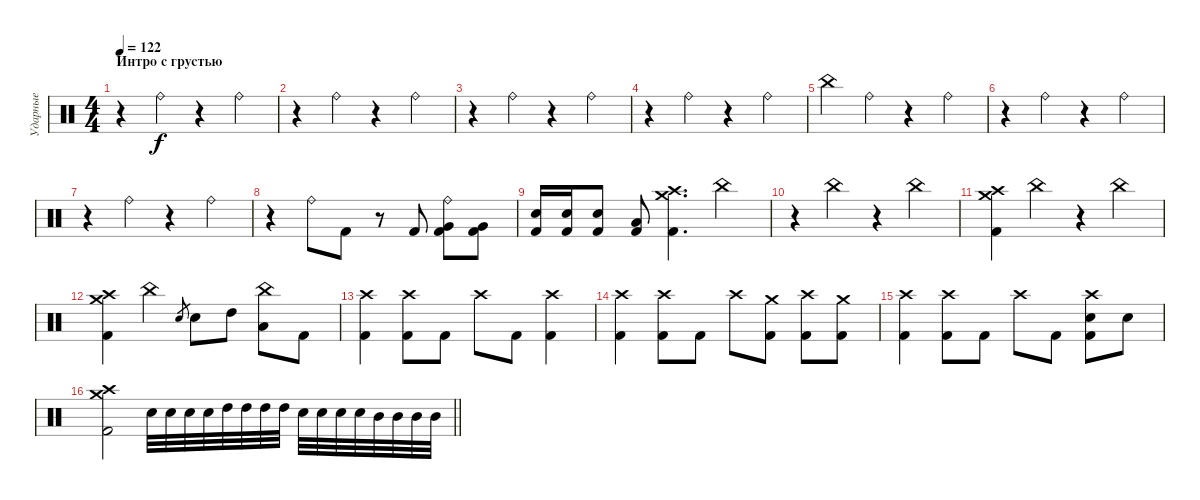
\track ("Ударные" "Ударные") {instrument percussion}
\staff {score}
\articulation defaults
\ts (4 4)
\section ("" "Интро с грустью")
\tempo 122
\clef neutral
\ks c
r.4{dy f} "Ride (bell)".4 r.4 "Ride (bell)".4 |
r.4 "Ride (bell)".4 r.4 "Ride (bell)".4 |
r.4 "Ride (bell)".4 r.4 "Ride (bell)".4 |
r.4 "Ride (bell)".4 r.4 "Ride (bell)".4 |
"China (hit)".4 "Ride (bell)".4 r.4 "Ride (bell)".4 |
r.4 "Ride (bell)".4 r.4 "Ride (bell)".4 |
r.4 "Ride (bell)".4 r.4 "Ride (bell)".4 |
r.4 "Ride (bell)".8 "Kick (hit) 2".8 r.8 "Kick (hit) 2".8 ("Ride (bell)" "Very Low Tom (hit)" "Kick (hit) 2").8 ("Very Low Tom (hit)" "Kick (hit) 2").8 |
("Electric Snare (hit)" "Kick (hit) 2").16 ("Electric Snare (hit)" "Kick (hit) 2").16 ("Electric Snare (hit)" "Kick (hit) 2").8 ("Low Tom (hit)" "Kick (hit) 2").8 ("Crash high (hit)" "Crash medium (hit)" "Kick (hit) 2").4{d} "China (hit)".4 |
r.4 "China (hit)".4 r.4 "China (hit)".4 |
("Crash medium (hit)" "Crash high (hit)" "Kick (hit) 2").4 "China (hit)".4 r.4 "China (hit)".4 |
("Crash medium (hit)" "Crash high (hit)" "Kick (hit) 2").4 "China (hit)".4 "Electric Snare (hit)".8{gr} "Electric Snare (hit)".8 "High Tom (hit)".8 ("China (hit)" "Low Tom (hit)").8 "Kick (hit) 2".8 |
("Crash high (hit)" "Kick (hit) 2").4 ("Crash high (hit)" "Kick (hit) 2").8 "Kick (hit) 2".8 "Crash high (hit)".8 "Kick (hit) 2".8 ("Crash high (hit)" "Kick (hit) 2").4 |
("Crash high (hit)" "Kick (hit) 2").4 ("Crash high (hit)" "Kick (hit) 2").8 "Kick (hit) 2".8 "Crash high (hit)".8 ("Crash medium (hit)" "Kick (hit) 2").8 ("Crash high (hit)" "Kick (hit) 2").8 ("Crash medium (hit)" "Kick (hit) 2").8 |
("Crash high (hit)" "Kick (hit) 2").4 ("Crash high (hit)" "Kick (hit) 2").8 "Kick (hit) 2".8 "Crash high (hit)".8 "Kick (hit) 2".8 ("Crash high (hit)" "Electric Snare (hit)" "Kick (hit) 2").8 "Electric Snare (hit)".8 |
\barLineRight lightlight
("Crash high (hit)" "Crash medium (hit)" "Kick (hit) 2").2 "Electric Snare (hit)".32 "Electric Snare (hit)".32 "Electric Snare (hit)".32 "Electric Snare (hit)".32 "High Tom (hit)".32 "High Tom (hit)".32 "High Tom (hit)".32 "High Tom (hit)".32 "Electric Snare (hit)".32 "Electric Snare (hit)".32 "Electric Snare (hit)".32 "Electric Snare (hit)".32 "Mid Tom (hit)".32 "Mid Tom (hit)".32 "Mid Tom (hit)".32 "Mid Tom (hit)".32
